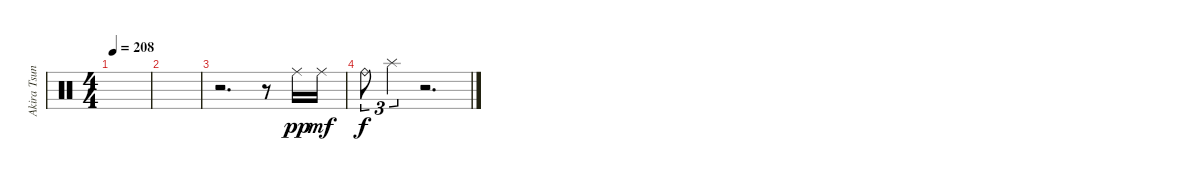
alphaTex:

\track ("Akira Tsuneoka" "Akira Tsun") {instrument percussion}
\staff {score}
\articulation defaults
\ts (4 4)
\tempo 208
\clef neutral
\ks c
|
|
r.2{d} r.8 "Ride (middle)".16{dy pp} "Ride (middle)".16{dy mf} |
"Ride (bell)".8{tu (3 2) dy f} "Splash (hit)".4{tu (3 2)} r.2{d}
